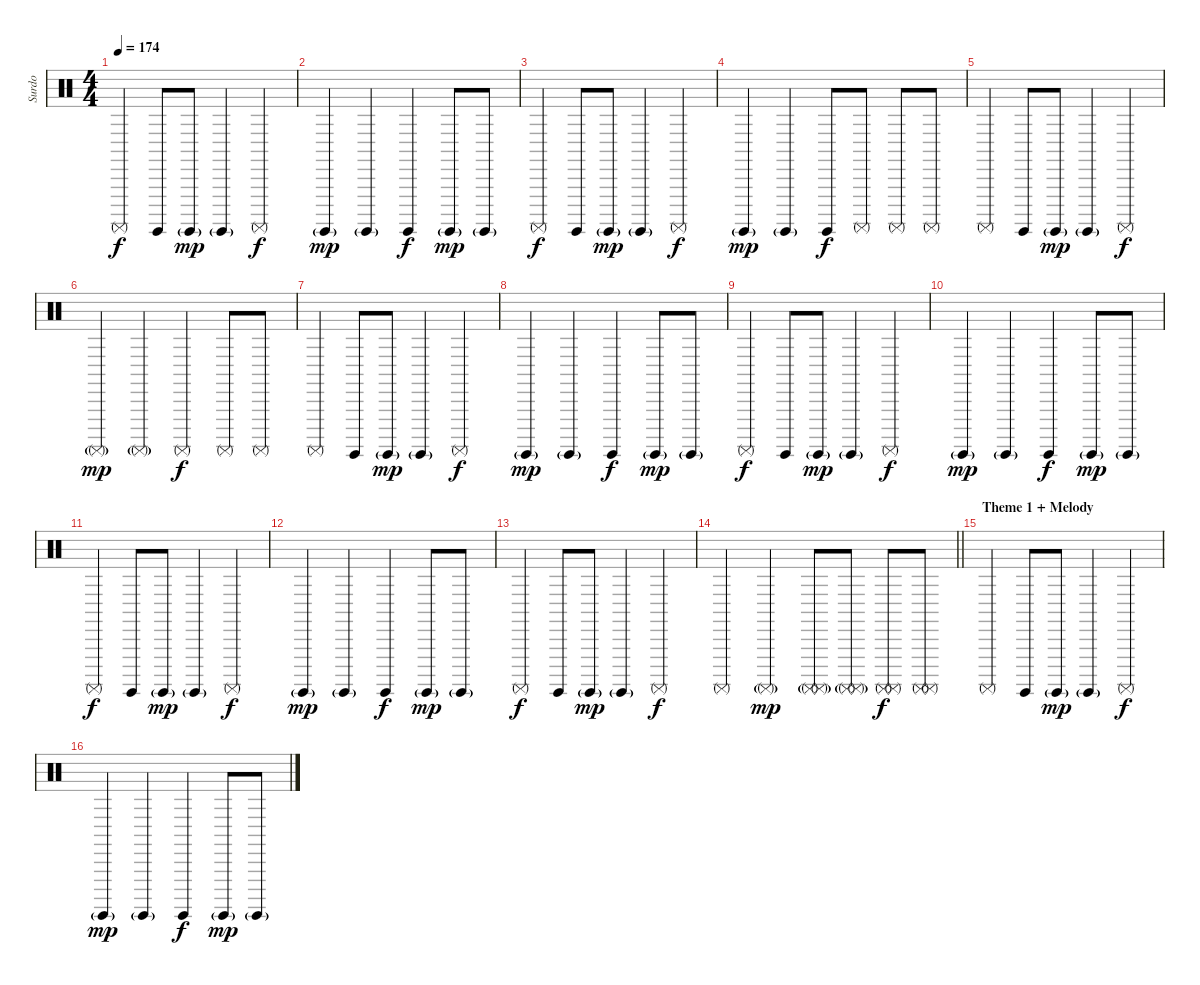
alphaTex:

\track ("Surdo" "Surdo") {instrument percussion}
\staff {score}
\articulation defaults
\ts (4 4)
\tempo 174
\clef neutral
\ks c "Surdo (mute)".4{dy f} "Surdo (hit)".8 "Surdo (hit)"{g}.8{dy mp} "Surdo (hit)"{g}.4 "Surdo (mute)".4{dy f}
|
"Surdo (hit)"{g}.4{dy mp} "Surdo (hit)"{g}.4 "Surdo (hit)".4{dy f} "Surdo (hit)"{g}.8{dy mp} "Surdo (hit)"{g}.8 |
"Surdo (mute)".4{dy f} "Surdo (hit)".8 "Surdo (hit)"{g}.8{dy mp} "Surdo (hit)"{g}.4 "Surdo (mute)".4{dy f} |
"Surdo (hit)"{g}.4{dy mp} "Surdo (hit)"{g}.4 "Surdo (hit)".8{dy f} "Surdo (mute)".8 "Surdo (mute)".8 "Surdo (mute)".8 |
"Surdo (mute)".4 "Surdo (hit)".8 "Surdo (hit)"{g}.8{dy mp} "Surdo (hit)"{g}.4 "Surdo (mute)".4{dy f} |
"Surdo (mute)"{g}.4{dy mp} "Surdo (mute)"{g}.4 "Surdo (mute)".4{dy f} "Surdo (mute)".8 "Surdo (mute)".8 |
"Surdo (mute)".4 "Surdo (hit)".8 "Surdo (hit)"{g}.8{dy mp} "Surdo (hit)"{g}.4 "Surdo (mute)".4{dy f} |
"Surdo (hit)"{g}.4{dy mp} "Surdo (hit)"{g}.4 "Surdo (hit)".4{dy f} "Surdo (hit)"{g}.8{dy mp} "Surdo (hit)"{g}.8 |
"Surdo (mute)".4{dy f} "Surdo (hit)".8 "Surdo (hit)"{g}.8{dy mp} "Surdo (hit)"{g}.4 "Surdo (mute)".4{dy f} |
"Surdo (hit)"{g}.4{dy mp} "Surdo (hit)"{g}.4 "Surdo (hit)".4{dy f} "Surdo (hit)"{g}.8{dy mp} "Surdo (hit)"{g}.8 |
"Surdo (mute)".4{dy f} "Surdo (hit)".8 "Surdo (hit)"{g}.8{dy mp} "Surdo (hit)"{g}.4 "Surdo (mute)".4{dy f} |
"Surdo (hit)"{g}.4{dy mp} "Surdo (hit)"{g}.4 "Surdo (hit)".4{dy f} "Surdo (hit)"{g}.8{dy mp} "Surdo (hit)"{g}.8 |
"Surdo (mute)".4{dy f} "Surdo (hit)".8 "Surdo (hit)"{g}.8{dy mp} "Surdo (hit)"{g}.4 "Surdo (mute)".4{dy f} |
\barLineRight lightlight "Surdo (mute)".4 "Surdo (mute)"{g}.4{dy mp}
("Surdo (mute)"{g} "Surdo (mute)").8 ("Surdo (mute)"{g} "Surdo (mute)").8 ("Surdo (mute)" "Surdo (mute)").8{dy f} ("Surdo (mute)" "Surdo (mute)").8 |
\section ("" "Theme 1 + Melody")
"Surdo (mute)".4 "Surdo (hit)".8 "Surdo (hit)"{g}.8{dy mp} "Surdo (hit)"{g}.4 "Surdo (mute)".4{dy f} |
"Surdo (hit)"{g}.4{dy mp} "Surdo (hit)"{g}.4 "Surdo (hit)".4{dy f} "Surdo (hit)"{g}.8{dy mp} "Surdo (hit)"{g}.8
